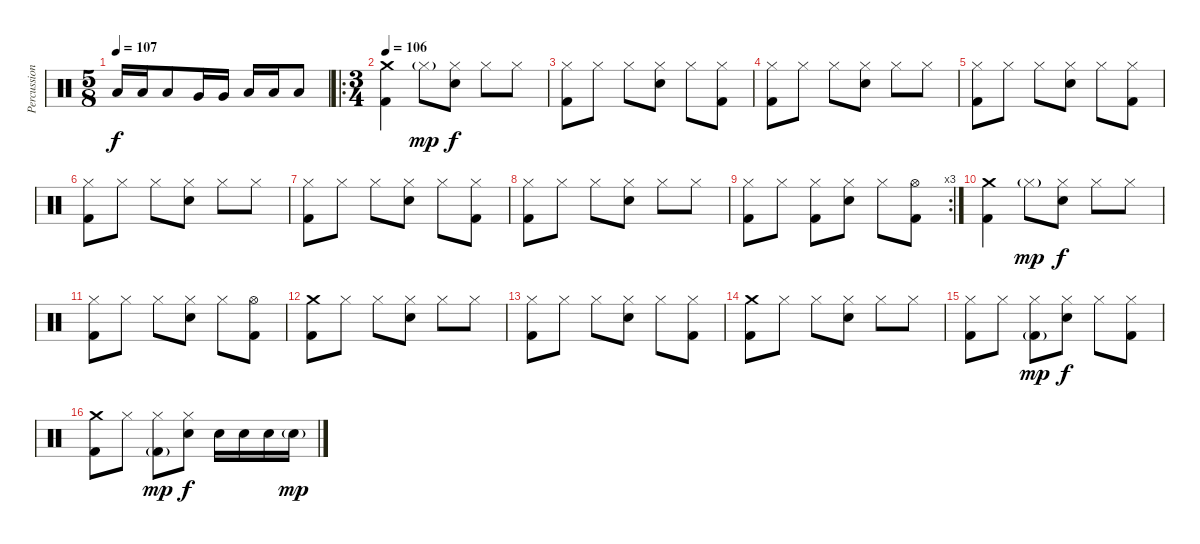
\track ("Percussions" "Percussion") {instrument percussion}
\staff {score}
\articulation defaults
\ts (5 8)
\tempo 107
\clef neutral
\ks c "Low Tom (hit)".16{dy f} "Low Tom (hit)".16 "Low Tom (hit)".8 "Very Low Tom (hit)".16 "Very Low Tom (hit)".16 "Low Floor Tom (hit)".16 "Low Floor Tom (hit)".16 "Low Floor Tom (hit)".8
|
\ro
\ts (3 4)
\tempo 106
("Crash medium (hit)" "Kick (hit) 2").4 "Hi-Hat (closed)"{g}.8{dy mp} ("Hi-Hat (closed)" "Snare (hit) 2").8{dy f} "Hi-Hat (closed)".8 "Hi-Hat (closed)".8 |
("Hi-Hat (closed)" "Kick (hit) 2").8 "Hi-Hat (closed)".8 "Hi-Hat (closed)".8 ("Hi-Hat (closed)" "Snare (hit) 2").8 "Hi-Hat (closed)".8 ("Hi-Hat (closed)" "Kick (hit) 2").8 |
("Hi-Hat (closed)" "Kick (hit) 2").8 "Hi-Hat (closed)".8 "Hi-Hat (closed)".8 ("Hi-Hat (closed)" "Snare (hit) 2").8 "Hi-Hat (closed)".8 "Hi-Hat (closed)".8 |
("Hi-Hat (closed)" "Kick (hit) 2").8 "Hi-Hat (closed)".8 "Hi-Hat (closed)".8 ("Hi-Hat (closed)" "Snare (hit) 2").8 "Hi-Hat (closed)".8 ("Hi-Hat (closed)" "Kick (hit) 2").8 |
("Hi-Hat (closed)" "Kick (hit) 2").8 "Hi-Hat (closed)".8 "Hi-Hat (closed)".8 ("Hi-Hat (closed)" "Snare (hit) 2").8 "Hi-Hat (closed)".8 "Hi-Hat (closed)".8 |
("Hi-Hat (closed)" "Kick (hit) 2").8 "Hi-Hat (closed)".8 "Hi-Hat (closed)".8 ("Hi-Hat (closed)" "Snare (hit) 2").8 "Hi-Hat (closed)".8 ("Hi-Hat (closed)" "Kick (hit) 2").8 |
("Hi-Hat (closed)" "Kick (hit) 2").8 "Hi-Hat (closed)".8 "Hi-Hat (closed)".8 ("Hi-Hat (closed)" "Snare (hit) 2").8 "Hi-Hat (closed)".8 "Hi-Hat (closed)".8 |
\rc 3
("Hi-Hat (closed)" "Kick (hit) 2").8 "Hi-Hat (closed)".8 ("Hi-Hat (closed)" "Kick (hit) 2").8 ("Hi-Hat (closed)" "Snare (hit) 2").8 "Hi-Hat (closed)".8 ("Hi-Hat (open)" "Kick (hit) 2").8 |
("Crash medium (hit)" "Kick (hit) 2").4 "Hi-Hat (closed)"{g}.8{dy mp} ("Hi-Hat (closed)" "Snare (hit) 2").8{dy f} "Hi-Hat (closed)".8 "Hi-Hat (closed)".8 |
("Hi-Hat (closed)" "Kick (hit) 2").8 "Hi-Hat (closed)".8 "Hi-Hat (closed)".8 ("Hi-Hat (closed)" "Snare (hit) 2").8 "Hi-Hat (closed)".8 ("Hi-Hat (open)" "Kick (hit) 2").8 |
("Crash medium (hit)" "Kick (hit) 2").8 "Hi-Hat (closed)".8 "Hi-Hat (closed)".8 ("Hi-Hat (closed)" "Snare (hit) 2").8 "Hi-Hat (closed)".8 "Hi-Hat (closed)".8 |
("Hi-Hat (closed)" "Kick (hit) 2").8 "Hi-Hat (closed)".8 "Hi-Hat (closed)".8 ("Hi-Hat (closed)" "Snare (hit) 2").8 "Hi-Hat (closed)".8 ("Hi-Hat (closed)" "Kick (hit) 2").8 |
("Crash medium (hit)" "Kick (hit) 2").8 "Hi-Hat (closed)".8 "Hi-Hat (closed)".8 ("Hi-Hat (closed)" "Snare (hit) 2").8 "Hi-Hat (closed)".8 "Hi-Hat (closed)".8 |
("Hi-Hat (closed)" "Kick (hit) 2").8 "Hi-Hat (closed)".8 ("Hi-Hat (closed)" "Kick (hit) 2"{g}).8{dy mp} ("Hi-Hat (closed)" "Snare (hit) 2").8{dy f} "Hi-Hat (closed)".8 ("Hi-Hat (closed)" "Kick (hit) 2").8 |
("Crash medium (hit)" "Kick (hit) 2").8 "Hi-Hat (closed)".8 ("Hi-Hat (closed)" "Kick (hit) 2"{g}).8{dy mp} ("Hi-Hat (closed)" "Snare (hit) 2").8{dy f} "Snare (hit) 2".16 "Snare (hit) 2".16 "Snare (hit) 2".16 "Snare (hit) 2"{g}.16{dy mp}
